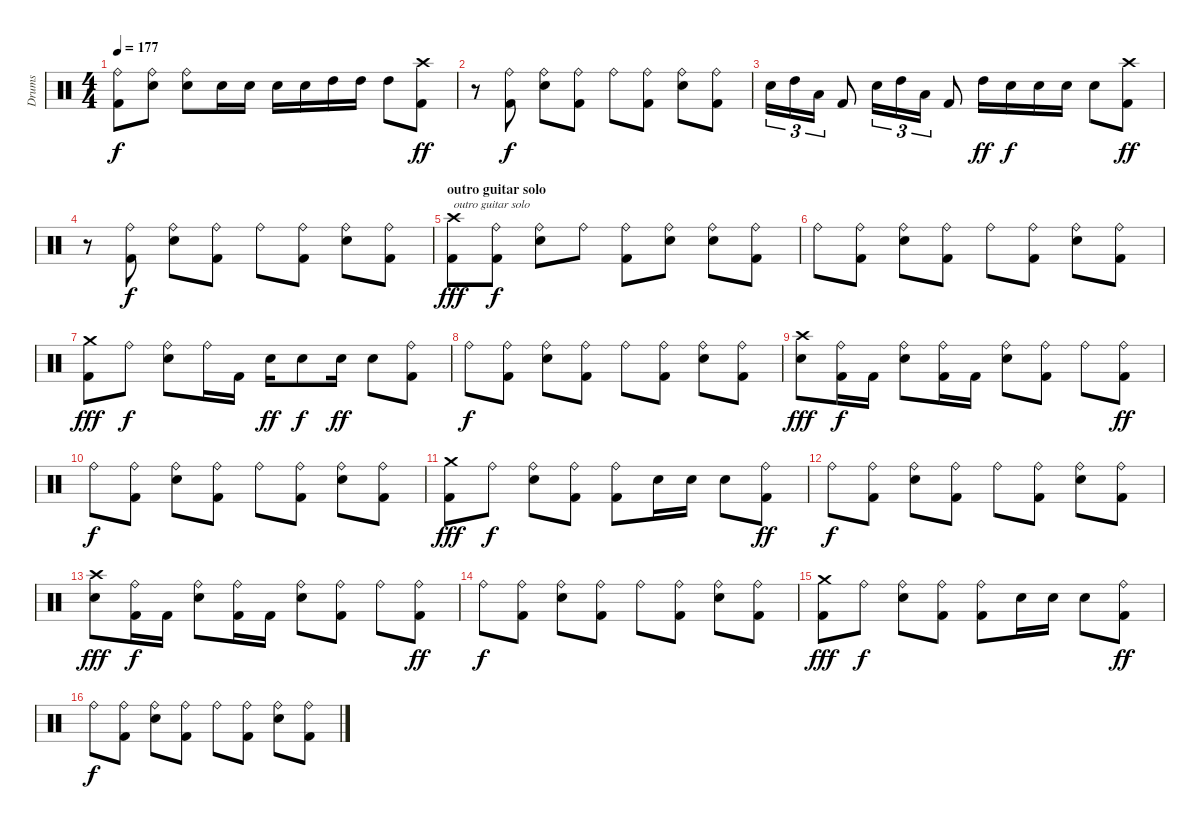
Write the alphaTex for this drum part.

\track ("Drums" "Drums") {instrument percussion}
\staff {score}
\articulation defaults
\ts (4 4)
\tempo 177
\clef neutral
\ks c
("Ride (bell)" "Kick (hit) 2").8{dy f} ("Ride (bell)" "Electric Snare (hit)").8 ("Ride (bell)" "Electric Snare (hit)").8 "Electric Snare (hit)".16 "Electric Snare (hit)".16 "Electric Snare (hit)".16 "Electric Snare (hit)".16 "High Tom (hit)".16 "High Tom (hit)".16 "High Tom (hit)".8 ("Crash high (hit)" "Kick (hit) 2").8{dy ff} |
r.8 ("Ride (bell)" "Kick (hit) 2").8{dy f} ("Ride (bell)" "Electric Snare (hit)").8 ("Ride (bell)" "Kick (hit) 2").8 "Ride (bell)".8 ("Ride (bell)" "Kick (hit) 2").8 ("Ride (bell)" "Electric Snare (hit)").8 ("Ride (bell)" "Kick (hit) 2").8 |
"Electric Snare (hit)".16{tu (3 2)} "High Tom (hit)".16{tu (3 2)} "Low Tom (hit)".16{tu (3 2)} "Kick (hit) 2".8 "Electric Snare (hit)".16{tu (3 2)} "High Tom (hit)".16{tu (3 2)} "Low Tom (hit)".16{tu (3 2)} "Kick (hit) 2".8 "High Tom (hit)".16{dy ff} "Electric Snare (hit)".16{dy f} "Electric Snare (hit)".16 "Electric Snare (hit)".16 "Electric Snare (hit)".8 ("Crash high (hit)" "Kick (hit) 2").8{dy ff} |
r.8 ("Ride (bell)" "Kick (hit) 2").8{dy f} ("Ride (bell)" "Electric Snare (hit)").8 ("Ride (bell)" "Kick (hit) 2").8 "Ride (bell)".8 ("Ride (bell)" "Kick (hit) 2").8 ("Ride (bell)" "Electric Snare (hit)").8 ("Ride (bell)" "Kick (hit) 2").8 |
\section ("" "outro guitar solo")
("Crash high (hit)" "Kick (hit) 2").8{txt "outro guitar solo" dy fff} ("Ride (bell)" "Kick (hit) 2").8{dy f} ("Ride (bell)" "Electric Snare (hit)").8 "Ride (bell)".8 ("Ride (bell)" "Kick (hit) 2").8 ("Ride (bell)" "Electric Snare (hit)").8 ("Ride (bell)" "Electric Snare (hit)").8 ("Ride (bell)" "Kick (hit) 2").8 |
"Ride (bell)".8 ("Ride (bell)" "Kick (hit) 2").8 ("Ride (bell)" "Electric Snare (hit)").8 ("Ride (bell)" "Kick (hit) 2").8 "Ride (bell)".8 ("Ride (bell)" "Kick (hit) 2").8 ("Ride (bell)" "Electric Snare (hit)").8 ("Ride (bell)" "Kick (hit) 2").8 |
("Crash medium (hit)" "Kick (hit) 2").8{dy fff} "Ride (bell)".8{dy f} ("Ride (bell)" "Electric Snare (hit)").8 "Ride (bell)".16 "Kick (hit) 2".16 "Electric Snare (hit)".16{dy ff} "Electric Snare (hit)".8{dy f} "Electric Snare (hit)".16{dy ff} "Electric Snare (hit)".8 ("Ride (bell)" "Kick (hit) 2").8 |
"Ride (bell)".8{dy f} ("Ride (bell)" "Kick (hit) 2").8 ("Ride (bell)" "Electric Snare (hit)").8 ("Ride (bell)" "Kick (hit) 2").8 "Ride (bell)".8 ("Ride (bell)" "Kick (hit) 2").8 ("Ride (bell)" "Electric Snare (hit)").8 ("Ride (bell)" "Kick (hit) 2").8 |
("Crash high (hit)" "Electric Snare (hit)").8{dy fff} ("Ride (bell)" "Kick (hit) 2").16{dy f} "Kick (hit) 2".16 ("Ride (bell)" "Electric Snare (hit)").8 ("Ride (bell)" "Kick (hit) 2").16 "Kick (hit) 2".16 ("Ride (bell)" "Electric Snare (hit)").8 ("Ride (bell)" "Kick (hit) 2").8 "Ride (bell)".8 ("Ride (bell)" "Kick (hit) 2").8{dy ff} |
"Ride (bell)".8{dy f} ("Ride (bell)" "Kick (hit) 2").8 ("Ride (bell)" "Electric Snare (hit)").8 ("Ride (bell)" "Kick (hit) 2").8 "Ride (bell)".8 ("Ride (bell)" "Kick (hit) 2").8 ("Ride (bell)" "Electric Snare (hit)").8 ("Ride (bell)" "Kick (hit) 2").8 |
("Crash medium (hit)" "Kick (hit) 2").8{dy fff} "Ride (bell)".8{dy f} ("Ride (bell)" "Electric Snare (hit)").8 ("Ride (bell)" "Kick (hit) 2").8 ("Ride (bell)" "Kick (hit) 2").8 "Electric Snare (hit)".16 "Electric Snare (hit)".16 "Electric Snare (hit)".8 ("Ride (bell)" "Kick (hit) 2").8{dy ff} |
"Ride (bell)".8{dy f} ("Ride (bell)" "Kick (hit) 2").8 ("Ride (bell)" "Electric Snare (hit)").8 ("Ride (bell)" "Kick (hit) 2").8 "Ride (bell)".8 ("Ride (bell)" "Kick (hit) 2").8 ("Ride (bell)" "Electric Snare (hit)").8 ("Ride (bell)" "Kick (hit) 2").8 |
("Crash high (hit)" "Electric Snare (hit)").8{dy fff} ("Ride (bell)" "Kick (hit) 2").16{dy f} "Kick (hit) 2".16 ("Ride (bell)" "Electric Snare (hit)").8 ("Ride (bell)" "Kick (hit) 2").16 "Kick (hit) 2".16 ("Ride (bell)" "Electric Snare (hit)").8 ("Ride (bell)" "Kick (hit) 2").8 "Ride (bell)".8 ("Ride (bell)" "Kick (hit) 2").8{dy ff} |
"Ride (bell)".8{dy f} ("Ride (bell)" "Kick (hit) 2").8 ("Ride (bell)" "Electric Snare (hit)").8 ("Ride (bell)" "Kick (hit) 2").8 "Ride (bell)".8 ("Ride (bell)" "Kick (hit) 2").8 ("Ride (bell)" "Electric Snare (hit)").8 ("Ride (bell)" "Kick (hit) 2").8 |
("Crash medium (hit)" "Kick (hit) 2").8{dy fff} "Ride (bell)".8{dy f} ("Ride (bell)" "Electric Snare (hit)").8 ("Ride (bell)" "Kick (hit) 2").8 ("Ride (bell)" "Kick (hit) 2").8 "Electric Snare (hit)".16 "Electric Snare (hit)".16 "Electric Snare (hit)".8 ("Ride (bell)" "Kick (hit) 2").8{dy ff} |
"Ride (bell)".8{dy f} ("Ride (bell)" "Kick (hit) 2").8 ("Ride (bell)" "Electric Snare (hit)").8 ("Ride (bell)" "Kick (hit) 2").8 "Ride (bell)".8 ("Ride (bell)" "Kick (hit) 2").8 ("Ride (bell)" "Electric Snare (hit)").8 ("Ride (bell)" "Kick (hit) 2").8
